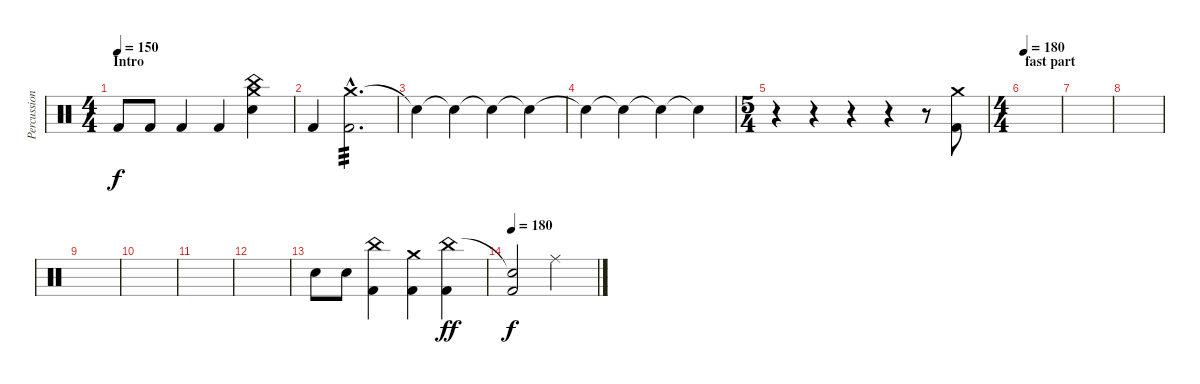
\track ("Percussion" "Percussion") {instrument percussion}
\staff {score}
\articulation defaults
\ts (4 4)
\section ("" "Intro")
\tempo 150
\clef neutral
\ks c "Kick (hit) 2".8{dy f} "Kick (hit) 2".8 "Kick (hit) 2".4 "Kick (hit) 2".4
("Crash medium (hit)" "China (hit)" "Electric Snare (hit)").4 |
"Kick (hit) 2".4 ("Crash medium (hit)"{hac} "Kick (hit) 2"{hac}).2{d tp 3} |
"Snare (hit)"{t}.4 "Snare (hit)"{t}.4 "Snare (hit)"{t}.4 "Snare (hit)"{t}.4 |
"Snare (hit)"{t}.4{volume 12} "Snare (hit)"{t}.4{volume 9} "Snare (hit)"{t}.4{volume 6} "Snare (hit)"{t}.4{volume 3} |
\ts (5 4)
r.4{volume 13} r.4 r.4 r.4 r.8 ("Crash medium (hit)" "Kick (hit) 2").8{volume 13} |
\ts (4 4)
\section ("" "fast part")
\tempo 180
|
|
|
|
|
|
|
"Electric Snare (hit)".8 "Electric Snare (hit)".8 ("China (hit)" "Kick (hit) 2").4 ("Crash medium (hit)" "Kick (hit) 2").4 ("China (hit)" "Kick (hit) 2").4{dy ff} |
\tempo 180
("Snare (hit)"{t} "Kick (hit) 2").2{dy f} "Ride (middle)".2
